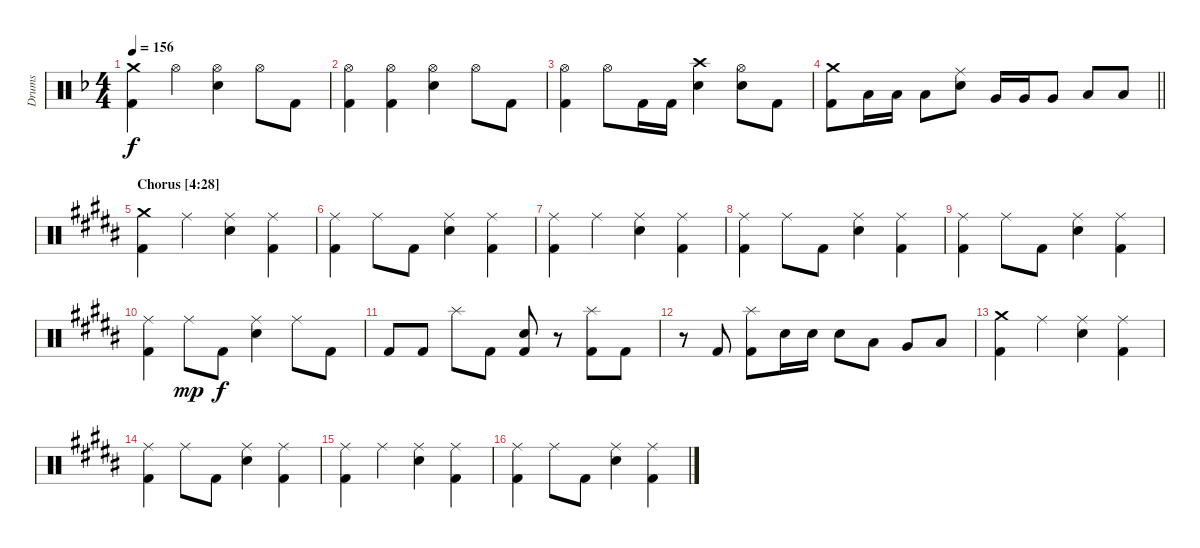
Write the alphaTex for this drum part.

\track ("Drums" "Drums") {instrument percussion}
\staff {score}
\articulation defaults
\ts (4 4)
\tempo 156
\clef neutral
\ks dminor
("Crash medium (hit)" "Kick (hit) 2").4{dy f} "Hi-Hat (open)".4 ("Hi-Hat (open)" "Snare (hit) 2").4 "Hi-Hat (open)".8 "Kick (hit) 2".8 |
("Hi-Hat (open)" "Kick (hit) 2").4 ("Hi-Hat (open)" "Kick (hit) 2").4 ("Hi-Hat (open)" "Snare (hit) 2").4 "Hi-Hat (open)".8 "Kick (hit) 2".8 |
("Hi-Hat (open)" "Kick (hit) 2").4 "Hi-Hat (open)".8 "Kick (hit) 2".16 "Kick (hit) 2".16 ("Crash high (hit)" "Snare (hit) 2").4 ("Hi-Hat (open)" "Snare (hit) 2").8 "Kick (hit) 2".8 |
\barLineRight lightlight
("Crash medium (hit)" "Kick (hit) 2").8 "Low Tom (hit)".16 "Low Tom (hit)".16 "Low Tom (hit)".8 ("Ride (middle)" "Snare (hit) 2").8 "Very Low Tom (hit)".16 "Very Low Tom (hit)".16 "Very Low Tom (hit)".8 "Low Floor Tom (hit)".8 "Low Floor Tom (hit)".8 |
\section ("" "Chorus [4:28]")
\ks g#minor
("Crash medium (hit)" "Kick (hit) 2").4 "Ride (middle)".4 ("Ride (middle)" "Snare (hit) 2").4 ("Ride (middle)" "Kick (hit) 2").4 |
("Ride (middle)" "Kick (hit) 2").4 "Ride (middle)".8 "Kick (hit) 2".8 ("Ride (middle)" "Snare (hit) 2").4 ("Ride (middle)" "Kick (hit) 2").4 |
("Ride (middle)" "Kick (hit) 2").4 "Ride (middle)".4 ("Ride (middle)" "Snare (hit) 2").4 ("Ride (middle)" "Kick (hit) 2").4 |
("Ride (middle)" "Kick (hit) 2").4 "Ride (middle)".8 "Kick (hit) 2".8 ("Ride (middle)" "Snare (hit) 2").4 ("Ride (middle)" "Kick (hit) 2").4 |
("Ride (middle)" "Kick (hit) 2").4 "Ride (middle)".8 "Kick (hit) 2".8 ("Ride (middle)" "Snare (hit) 2").4 ("Ride (middle)" "Kick (hit) 2").4 |
("Ride (middle)" "Kick (hit) 2").4 "Ride (middle)".8{dy mp} "Kick (hit) 2".8{dy f} ("Ride (middle)" "Snare (hit) 2").4 "Ride (middle)".8 "Kick (hit) 2".8 |
"Kick (hit) 2".8 "Kick (hit) 2".8 "Splash (hit)".8 "Kick (hit) 2".8 ("Snare (hit) 2" "Kick (hit) 2").8 r.8 ("Splash (hit)" "Kick (hit) 2").8 "Kick (hit) 2".8 |
r.8 "Kick (hit) 2".8 ("Splash (hit)" "Kick (hit) 2").8 "Snare (hit) 2".16 "Snare (hit) 2".16 "Snare (hit) 2".8 "Low Tom (hit)".8 "Very Low Tom (hit)".8 "Low Floor Tom (hit)".8 |
("Crash medium (hit)" "Kick (hit) 2").4 "Ride (middle)".4 ("Ride (middle)" "Snare (hit) 2").4 ("Ride (middle)" "Kick (hit) 2").4 |
("Ride (middle)" "Kick (hit) 2").4 "Ride (middle)".8 "Kick (hit) 2".8 ("Ride (middle)" "Snare (hit) 2").4 ("Ride (middle)" "Kick (hit) 2").4 |
("Ride (middle)" "Kick (hit) 2").4 "Ride (middle)".4 ("Ride (middle)" "Snare (hit) 2").4 ("Ride (middle)" "Kick (hit) 2").4 |
("Ride (middle)" "Kick (hit) 2").4 "Ride (middle)".8 "Kick (hit) 2".8 ("Ride (middle)" "Snare (hit) 2").4 ("Ride (middle)" "Kick (hit) 2").4
